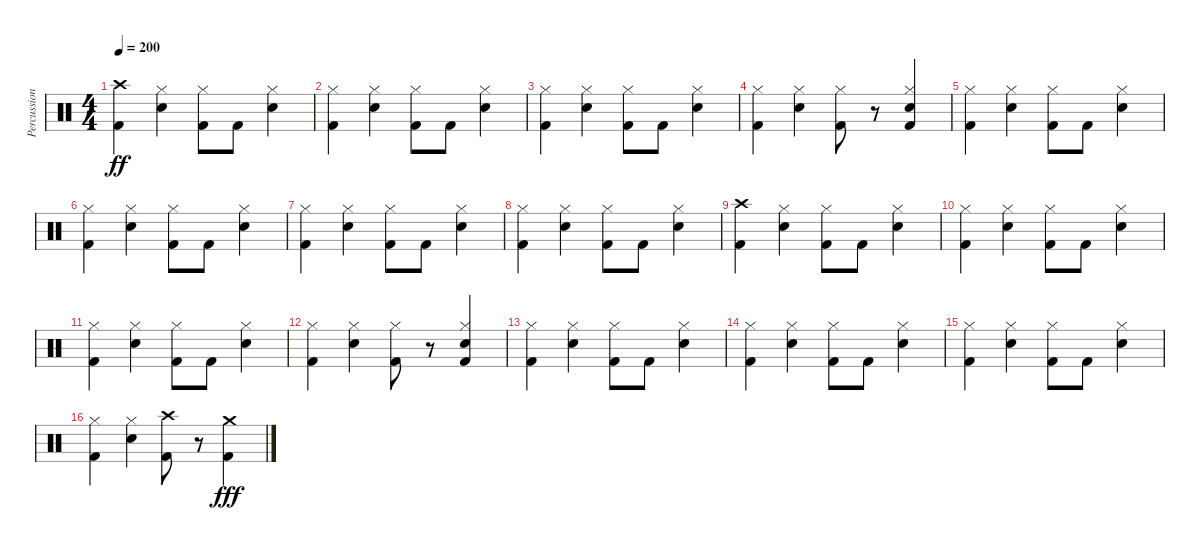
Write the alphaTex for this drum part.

\track ("Percussion" "Percussion") {instrument percussion}
\staff {score}
\articulation defaults
\ts (4 4)
\tempo 200
\clef neutral
\ks c
("Crash high (hit)" "Kick (hit) 2").4{dy ff} ("Hi-Hat (closed)" "Snare (hit) 2").4 ("Hi-Hat (closed)" "Kick (hit) 2").8 "Kick (hit) 2".8 ("Hi-Hat (closed)" "Snare (hit) 2").4 |
("Hi-Hat (closed)" "Kick (hit) 2").4 ("Hi-Hat (closed)" "Snare (hit) 2").4 ("Hi-Hat (closed)" "Kick (hit) 2").8 "Kick (hit) 2".8 ("Hi-Hat (closed)" "Snare (hit) 2").4 |
("Hi-Hat (closed)" "Kick (hit) 2").4 ("Hi-Hat (closed)" "Snare (hit) 2").4 ("Hi-Hat (closed)" "Kick (hit) 2").8 "Kick (hit) 2".8 ("Hi-Hat (closed)" "Snare (hit) 2").4 |
("Hi-Hat (closed)" "Kick (hit) 2").4 ("Hi-Hat (closed)" "Snare (hit) 2").4 ("Hi-Hat (closed)" "Kick (hit) 2").8 r.8 ("Hi-Hat (closed)" "Snare (hit) 2" "Kick (hit) 2").4 |
("Hi-Hat (closed)" "Kick (hit) 2").4 ("Hi-Hat (closed)" "Snare (hit) 2").4 ("Hi-Hat (closed)" "Kick (hit) 2").8 "Kick (hit) 2".8 ("Hi-Hat (closed)" "Snare (hit) 2").4 |
("Hi-Hat (closed)" "Kick (hit) 2").4 ("Hi-Hat (closed)" "Snare (hit) 2").4 ("Hi-Hat (closed)" "Kick (hit) 2").8 "Kick (hit) 2".8 ("Hi-Hat (closed)" "Snare (hit) 2").4 |
("Hi-Hat (closed)" "Kick (hit) 2").4 ("Hi-Hat (closed)" "Snare (hit) 2").4 ("Hi-Hat (closed)" "Kick (hit) 2").8 "Kick (hit) 2".8 ("Hi-Hat (closed)" "Snare (hit) 2").4 |
("Hi-Hat (closed)" "Kick (hit) 2").4 ("Hi-Hat (closed)" "Snare (hit) 2").4 ("Hi-Hat (closed)" "Kick (hit) 2").8 "Kick (hit) 2".8 ("Hi-Hat (closed)" "Snare (hit) 2").4 |
("Crash high (hit)" "Kick (hit) 2").4 ("Hi-Hat (closed)" "Snare (hit) 2").4 ("Hi-Hat (closed)" "Kick (hit) 2").8 "Kick (hit) 2".8 ("Hi-Hat (closed)" "Snare (hit) 2").4 |
("Hi-Hat (closed)" "Kick (hit) 2").4 ("Hi-Hat (closed)" "Snare (hit) 2").4 ("Hi-Hat (closed)" "Kick (hit) 2").8 "Kick (hit) 2".8 ("Hi-Hat (closed)" "Snare (hit) 2").4 |
("Hi-Hat (closed)" "Kick (hit) 2").4 ("Hi-Hat (closed)" "Snare (hit) 2").4 ("Hi-Hat (closed)" "Kick (hit) 2").8 "Kick (hit) 2".8 ("Hi-Hat (closed)" "Snare (hit) 2").4 |
("Hi-Hat (closed)" "Kick (hit) 2").4 ("Hi-Hat (closed)" "Snare (hit) 2").4 ("Hi-Hat (closed)" "Kick (hit) 2").8 r.8 ("Hi-Hat (closed)" "Snare (hit) 2" "Kick (hit) 2").4 |
("Hi-Hat (closed)" "Kick (hit) 2").4 ("Hi-Hat (closed)" "Snare (hit) 2").4 ("Hi-Hat (closed)" "Kick (hit) 2").8 "Kick (hit) 2".8 ("Hi-Hat (closed)" "Snare (hit) 2").4 |
("Hi-Hat (closed)" "Kick (hit) 2").4 ("Hi-Hat (closed)" "Snare (hit) 2").4 ("Hi-Hat (closed)" "Kick (hit) 2").8 "Kick (hit) 2".8 ("Hi-Hat (closed)" "Snare (hit) 2").4 |
("Hi-Hat (closed)" "Kick (hit) 2").4 ("Hi-Hat (closed)" "Snare (hit) 2").4 ("Hi-Hat (closed)" "Kick (hit) 2").8 "Kick (hit) 2".8 ("Hi-Hat (closed)" "Snare (hit) 2").4 |
("Hi-Hat (closed)" "Kick (hit) 2").4 ("Hi-Hat (closed)" "Snare (hit) 2").4 ("Crash high (hit)" "Kick (hit) 2").8 r.8 ("Crash medium (hit)" "Kick (hit) 2").4{dy fff}
